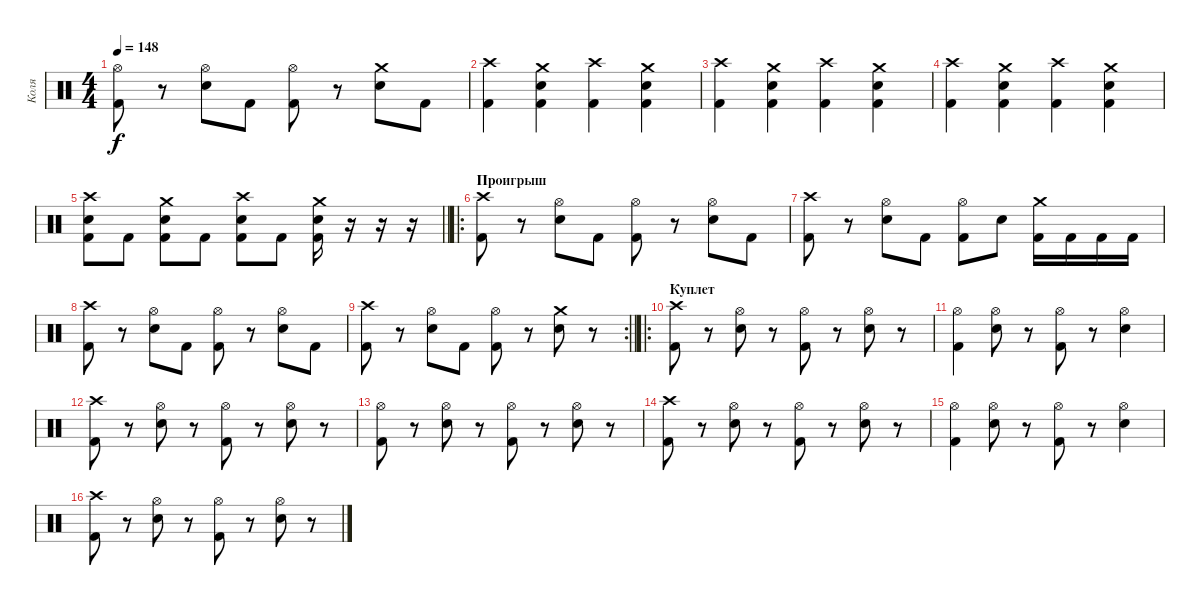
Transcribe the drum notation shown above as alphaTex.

\track ("Коля" "Коля") {instrument percussion}
\staff {score}
\articulation defaults
\ts (4 4)
\tempo 148
\clef neutral
\ks c
("Kick (hit) 2" "Hi-Hat (open)").8{dy f} r.8 ("Electric Snare (hit)" "Hi-Hat (open)").8 "Kick (hit) 2".8 ("Kick (hit) 2" "Hi-Hat (open)").8 r.8 ("Electric Snare (hit)" "Crash medium (hit)").8 "Kick (hit) 2".8 |
("Kick (hit) 2" "Crash high (hit)").4 ("Kick (hit) 2" "Electric Snare (hit)" "Crash medium (hit)").4 ("Kick (hit) 2" "Crash high (hit)").4 ("Kick (hit) 2" "Electric Snare (hit)" "Crash medium (hit)").4 |
("Kick (hit) 2" "Crash high (hit)").4 ("Kick (hit) 2" "Electric Snare (hit)" "Crash medium (hit)").4 ("Kick (hit) 2" "Crash high (hit)").4 ("Kick (hit) 2" "Electric Snare (hit)" "Crash medium (hit)").4 |
("Kick (hit) 2" "Crash high (hit)").4 ("Kick (hit) 2" "Electric Snare (hit)" "Crash medium (hit)").4 ("Kick (hit) 2" "Crash high (hit)").4 ("Kick (hit) 2" "Electric Snare (hit)" "Crash medium (hit)").4 |
\barLineRight lightlight
("Kick (hit) 2" "Electric Snare (hit)" "Crash high (hit)").8 "Kick (hit) 2".8 ("Kick (hit) 2" "Electric Snare (hit)" "Crash medium (hit)").8 "Kick (hit) 2".8 ("Kick (hit) 2" "Electric Snare (hit)" "Crash high (hit)").8 "Kick (hit) 2".8 ("Kick (hit) 2" "Electric Snare (hit)" "Crash medium (hit)").16 r.16 r.16 r.16 |
\ro
\section ("" "Проигрыш")
("Kick (hit) 2" "Crash high (hit)").8 r.8 ("Electric Snare (hit)" "Hi-Hat (open)").8 "Kick (hit) 2".8 ("Kick (hit) 2" "Hi-Hat (open)").8 r.8 ("Electric Snare (hit)" "Hi-Hat (open)").8 "Kick (hit) 2".8 |
("Kick (hit) 2" "Crash high (hit)").8 r.8 ("Electric Snare (hit)" "Hi-Hat (open)").8 "Kick (hit) 2".8 ("Kick (hit) 2" "Hi-Hat (open)").8 "Electric Snare (hit)".8 ("Kick (hit) 2" "Crash medium (hit)").16 "Kick (hit) 2".16 "Kick (hit) 2".16 "Kick (hit) 2".16 |
("Kick (hit) 2" "Crash high (hit)").8 r.8 ("Electric Snare (hit)" "Hi-Hat (open)").8 "Kick (hit) 2".8 ("Kick (hit) 2" "Hi-Hat (open)").8 r.8 ("Electric Snare (hit)" "Hi-Hat (open)").8 "Kick (hit) 2".8 |
\rc 2
\barLineRight lightlight
("Kick (hit) 2" "Crash high (hit)").8 r.8 ("Electric Snare (hit)" "Hi-Hat (open)").8 "Kick (hit) 2".8 ("Kick (hit) 2" "Hi-Hat (open)").8 r.8 ("Electric Snare (hit)" "Crash medium (hit)").8 r.8 |
\ro
\section ("" "Куплет")
("Kick (hit) 2" "Crash high (hit)").8 r.8 ("Electric Snare (hit)" "Hi-Hat (open)").8 r.8 ("Kick (hit) 2" "Hi-Hat (open)").8 r.8 ("Electric Snare (hit)" "Hi-Hat (open)").8 r.8 |
("Kick (hit) 2" "Hi-Hat (open)").4 ("Electric Snare (hit)" "Hi-Hat (open)").8 r.8 ("Kick (hit) 2" "Hi-Hat (open)").8 r.8 ("Electric Snare (hit)" "Hi-Hat (open)").4 |
("Kick (hit) 2" "Crash high (hit)").8 r.8 ("Electric Snare (hit)" "Hi-Hat (open)").8 r.8 ("Kick (hit) 2" "Hi-Hat (open)").8 r.8 ("Electric Snare (hit)" "Hi-Hat (open)").8 r.8 |
("Kick (hit) 2" "Hi-Hat (open)").8 r.8 ("Electric Snare (hit)" "Hi-Hat (open)").8 r.8 ("Kick (hit) 2" "Hi-Hat (open)").8 r.8 ("Electric Snare (hit)" "Hi-Hat (open)").8 r.8 |
("Kick (hit) 2" "Crash high (hit)").8 r.8 ("Electric Snare (hit)" "Hi-Hat (open)").8 r.8 ("Kick (hit) 2" "Hi-Hat (open)").8 r.8 ("Electric Snare (hit)" "Hi-Hat (open)").8 r.8 |
("Kick (hit) 2" "Hi-Hat (open)").4 ("Electric Snare (hit)" "Hi-Hat (open)").8 r.8 ("Kick (hit) 2" "Hi-Hat (open)").8 r.8 ("Electric Snare (hit)" "Hi-Hat (open)").4 |
("Kick (hit) 2" "Crash high (hit)").8 r.8 ("Electric Snare (hit)" "Hi-Hat (open)").8 r.8 ("Kick (hit) 2" "Hi-Hat (open)").8 r.8 ("Electric Snare (hit)" "Hi-Hat (open)").8 r.8
